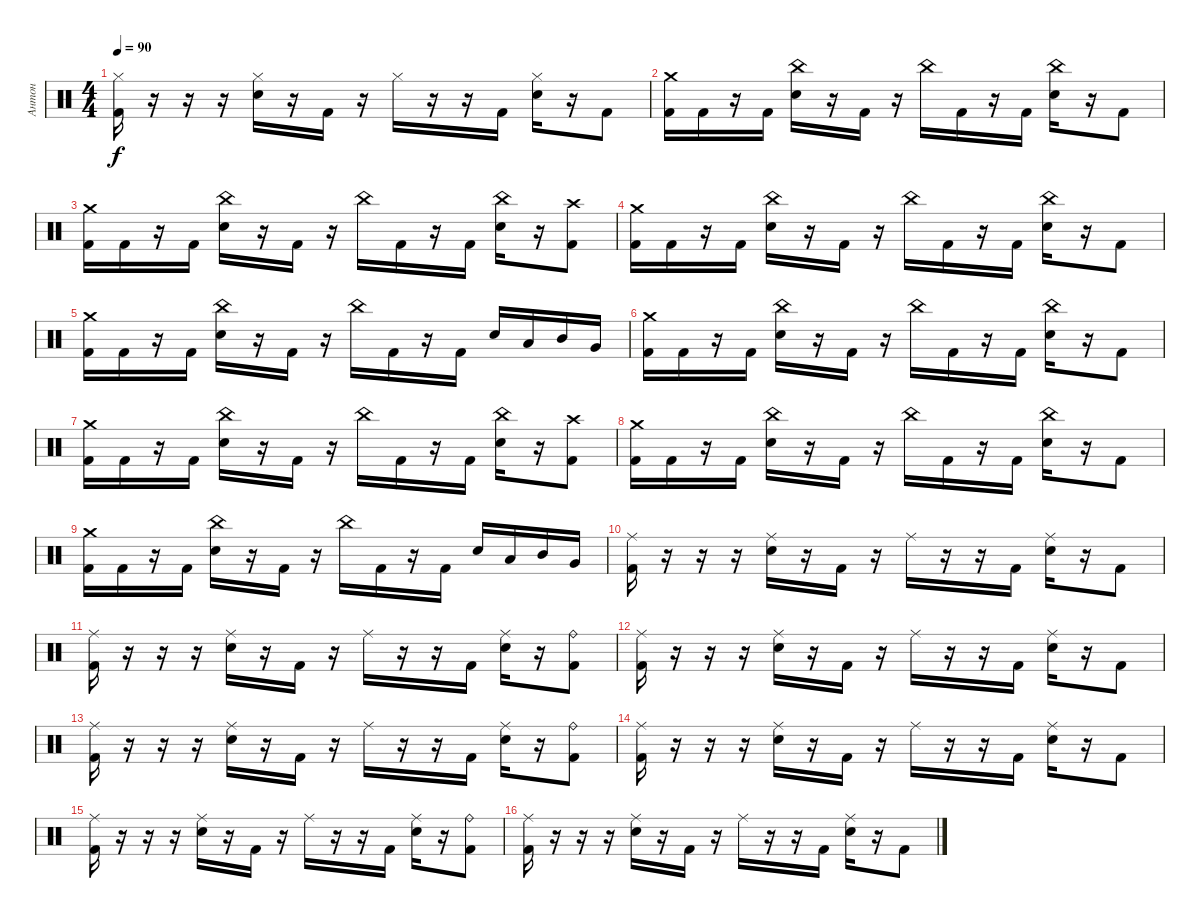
\track ("Антон" "Антон") {instrument percussion}
\staff {score}
\articulation defaults
\ts (4 4)
\tempo 90
\clef neutral
\ks c
("Hi-Hat (closed)" "Kick (hit) 2").16{dy f} r.16 r.16 r.16 ("Hi-Hat (closed)" "Electric Snare (hit)").16 r.16 "Kick (hit) 2".16 r.16 "Hi-Hat (closed)".16 r.16 r.16 "Kick (hit) 2".16 ("Hi-Hat (closed)" "Electric Snare (hit)").16 r.16 "Kick (hit) 2".8 |
("Crash medium (hit)" "Kick (hit) 2").16 "Kick (hit) 2".16 r.16 "Kick (hit) 2".16 ("China (hit)" "Electric Snare (hit)").16 r.16 "Kick (hit) 2".16 r.16 "China (hit)".16 "Kick (hit) 2".16 r.16 "Kick (hit) 2".16 ("China (hit)" "Electric Snare (hit)").16 r.16 "Kick (hit) 2".8 |
("Crash medium (hit)" "Kick (hit) 2").16 "Kick (hit) 2".16 r.16 "Kick (hit) 2".16 ("China (hit)" "Electric Snare (hit)").16 r.16 "Kick (hit) 2".16 r.16 "China (hit)".16 "Kick (hit) 2".16 r.16 "Kick (hit) 2".16 ("China (hit)" "Electric Snare (hit)").16 r.16 ("Crash high (hit)" "Kick (hit) 2").8 |
("Crash medium (hit)" "Kick (hit) 2").16 "Kick (hit) 2".16 r.16 "Kick (hit) 2".16 ("China (hit)" "Electric Snare (hit)").16 r.16 "Kick (hit) 2".16 r.16 "China (hit)".16 "Kick (hit) 2".16 r.16 "Kick (hit) 2".16 ("China (hit)" "Electric Snare (hit)").16 r.16 "Kick (hit) 2".8 |
("Crash medium (hit)" "Kick (hit) 2").16 "Kick (hit) 2".16 r.16 "Kick (hit) 2".16 ("China (hit)" "Electric Snare (hit)").16 r.16 "Kick (hit) 2".16 r.16 "China (hit)".16 "Kick (hit) 2".16 r.16 "Kick (hit) 2".16 "Electric Snare (hit)".16 "Low Tom (hit)".16 "Mid Tom (hit)".16 "Very Low Tom (hit)".16 |
("Crash medium (hit)" "Kick (hit) 2").16 "Kick (hit) 2".16 r.16 "Kick (hit) 2".16 ("China (hit)" "Electric Snare (hit)").16 r.16 "Kick (hit) 2".16 r.16 "China (hit)".16 "Kick (hit) 2".16 r.16 "Kick (hit) 2".16 ("China (hit)" "Electric Snare (hit)").16 r.16 "Kick (hit) 2".8 |
("Crash medium (hit)" "Kick (hit) 2").16 "Kick (hit) 2".16 r.16 "Kick (hit) 2".16 ("China (hit)" "Electric Snare (hit)").16 r.16 "Kick (hit) 2".16 r.16 "China (hit)".16 "Kick (hit) 2".16 r.16 "Kick (hit) 2".16 ("China (hit)" "Electric Snare (hit)").16 r.16 ("Crash high (hit)" "Kick (hit) 2").8 |
("Crash medium (hit)" "Kick (hit) 2").16 "Kick (hit) 2".16 r.16 "Kick (hit) 2".16 ("China (hit)" "Electric Snare (hit)").16 r.16 "Kick (hit) 2".16 r.16 "China (hit)".16 "Kick (hit) 2".16 r.16 "Kick (hit) 2".16 ("China (hit)" "Electric Snare (hit)").16 r.16 "Kick (hit) 2".8 |
("Crash medium (hit)" "Kick (hit) 2").16 "Kick (hit) 2".16 r.16 "Kick (hit) 2".16 ("China (hit)" "Electric Snare (hit)").16 r.16 "Kick (hit) 2".16 r.16 "China (hit)".16 "Kick (hit) 2".16 r.16 "Kick (hit) 2".16 "Electric Snare (hit)".16 "Low Tom (hit)".16 "Mid Tom (hit)".16 "Very Low Tom (hit)".16 |
("Ride (middle)" "Kick (hit) 2").16 r.16 r.16 r.16 ("Ride (middle)" "Electric Snare (hit)").16 r.16 "Kick (hit) 2".16 r.16 "Ride (middle)".16 r.16 r.16 "Kick (hit) 2".16 ("Ride (middle)" "Electric Snare (hit)").16 r.16 "Kick (hit) 2".8 |
("Ride (middle)" "Kick (hit) 2").16 r.16 r.16 r.16 ("Ride (middle)" "Electric Snare (hit)").16 r.16 "Kick (hit) 2".16 r.16 "Ride (middle)".16 r.16 r.16 "Kick (hit) 2".16 ("Ride (middle)" "Electric Snare (hit)").16 r.16 ("Ride (bell)" "Kick (hit) 2").8 |
("Ride (middle)" "Kick (hit) 2").16 r.16 r.16 r.16 ("Ride (middle)" "Electric Snare (hit)").16 r.16 "Kick (hit) 2".16 r.16 "Ride (middle)".16 r.16 r.16 "Kick (hit) 2".16 ("Ride (middle)" "Electric Snare (hit)").16 r.16 "Kick (hit) 2".8 |
("Ride (middle)" "Kick (hit) 2").16 r.16 r.16 r.16 ("Ride (middle)" "Electric Snare (hit)").16 r.16 "Kick (hit) 2".16 r.16 "Ride (middle)".16 r.16 r.16 "Kick (hit) 2".16 ("Ride (middle)" "Electric Snare (hit)").16 r.16 ("Ride (bell)" "Kick (hit) 2").8 |
("Ride (middle)" "Kick (hit) 2").16 r.16 r.16 r.16 ("Ride (middle)" "Electric Snare (hit)").16 r.16 "Kick (hit) 2".16 r.16 "Ride (middle)".16 r.16 r.16 "Kick (hit) 2".16 ("Ride (middle)" "Electric Snare (hit)").16 r.16 "Kick (hit) 2".8 |
("Ride (middle)" "Kick (hit) 2").16 r.16 r.16 r.16 ("Ride (middle)" "Electric Snare (hit)").16 r.16 "Kick (hit) 2".16 r.16 "Ride (middle)".16 r.16 r.16 "Kick (hit) 2".16 ("Ride (middle)" "Electric Snare (hit)").16 r.16 ("Ride (bell)" "Kick (hit) 2").8 |
("Ride (middle)" "Kick (hit) 2").16 r.16 r.16 r.16 ("Ride (middle)" "Electric Snare (hit)").16 r.16 "Kick (hit) 2".16 r.16 "Ride (middle)".16 r.16 r.16 "Kick (hit) 2".16 ("Ride (middle)" "Electric Snare (hit)").16 r.16 "Kick (hit) 2".8
